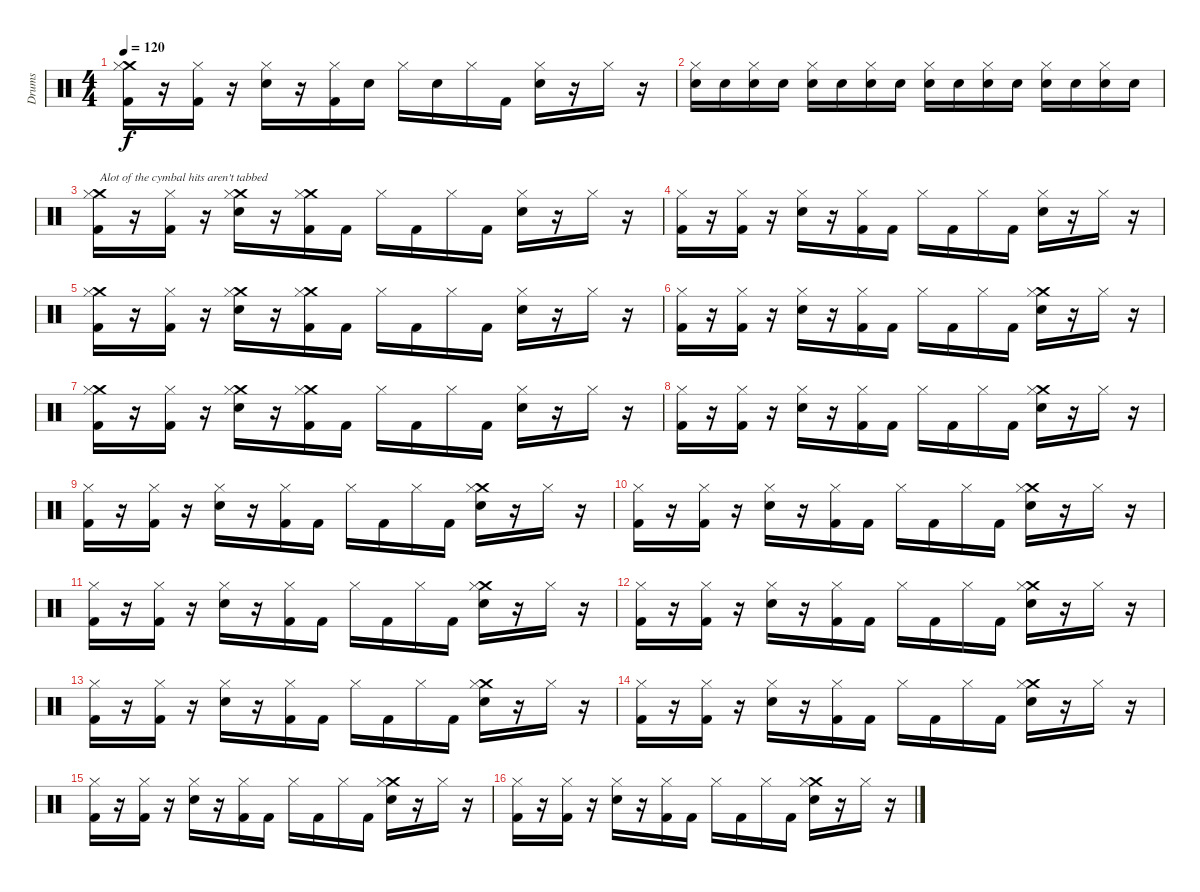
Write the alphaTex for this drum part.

\track ("Drums" "Drums") {instrument percussion}
\staff {score}
\articulation defaults
\ts (4 4)
\tempo 120
\clef neutral
\ks c
("Crash medium (hit)" "Hi-Hat (closed)" "Kick (hit) 2").16{dy f} r.16 ("Hi-Hat (closed)" "Kick (hit) 2").16 r.16 ("Hi-Hat (closed)" "Snare (hit) 2").16 r.16 ("Hi-Hat (closed)" "Kick (hit) 2").16 "Snare (hit) 2".16 "Hi-Hat (closed)".16 "Snare (hit) 2".16 "Hi-Hat (closed)".16 "Kick (hit) 2".16 ("Hi-Hat (closed)" "Snare (hit) 2").16 r.16 "Hi-Hat (closed)".16 r.16 |
("Hi-Hat (closed)" "Snare (hit) 2").16 "Snare (hit) 2".16 ("Hi-Hat (closed)" "Snare (hit) 2").16 "Snare (hit) 2".16 ("Hi-Hat (closed)" "Snare (hit) 2").16 "Snare (hit) 2".16 ("Hi-Hat (closed)" "Snare (hit) 2").16 "Snare (hit) 2".16 ("Hi-Hat (closed)" "Snare (hit) 2").16 "Snare (hit) 2".16 ("Hi-Hat (closed)" "Snare (hit) 2").16 "Snare (hit) 2".16 ("Hi-Hat (closed)" "Snare (hit) 2").16 "Snare (hit) 2".16 ("Hi-Hat (closed)" "Snare (hit) 2").16 "Snare (hit) 2".16 |
("Crash medium (hit)" "Hi-Hat (closed)" "Kick (hit) 2").16{txt "Alot of the cymbal hits aren't tabbed"} r.16 ("Hi-Hat (closed)" "Kick (hit) 2").16 r.16 ("Crash medium (hit)" "Hi-Hat (closed)" "Snare (hit) 2").16 r.16 ("Crash medium (hit)" "Hi-Hat (closed)" "Kick (hit) 2").16 "Kick (hit) 2".16 "Hi-Hat (closed)".16 "Kick (hit) 2".16 "Hi-Hat (closed)".16 "Kick (hit) 2".16 ("Hi-Hat (closed)" "Snare (hit) 2").16 r.16 "Hi-Hat (closed)".16 r.16 |
("Hi-Hat (closed)" "Kick (hit) 2").16 r.16 ("Hi-Hat (closed)" "Kick (hit) 2").16 r.16 ("Hi-Hat (closed)" "Snare (hit) 2").16 r.16 ("Hi-Hat (closed)" "Kick (hit) 2").16 "Kick (hit) 2".16 "Hi-Hat (closed)".16 "Kick (hit) 2".16 "Hi-Hat (closed)".16 "Kick (hit) 2".16 ("Hi-Hat (closed)" "Snare (hit) 2").16 r.16 "Hi-Hat (closed)".16 r.16 |
("Crash medium (hit)" "Hi-Hat (closed)" "Kick (hit) 2").16 r.16 ("Hi-Hat (closed)" "Kick (hit) 2").16 r.16 ("Crash medium (hit)" "Hi-Hat (closed)" "Snare (hit) 2").16 r.16 ("Crash medium (hit)" "Hi-Hat (closed)" "Kick (hit) 2").16 "Kick (hit) 2".16 "Hi-Hat (closed)".16 "Kick (hit) 2".16 "Hi-Hat (closed)".16 "Kick (hit) 2".16 ("Hi-Hat (closed)" "Snare (hit) 2").16 r.16 "Hi-Hat (closed)".16 r.16 |
("Hi-Hat (closed)" "Kick (hit) 2").16 r.16 ("Hi-Hat (closed)" "Kick (hit) 2").16 r.16 ("Hi-Hat (closed)" "Snare (hit) 2").16 r.16 ("Hi-Hat (closed)" "Kick (hit) 2").16 "Kick (hit) 2".16 "Hi-Hat (closed)".16 "Kick (hit) 2".16 "Hi-Hat (closed)".16 "Kick (hit) 2".16 ("Crash medium (hit)" "Hi-Hat (closed)" "Snare (hit) 2").16 r.16 "Hi-Hat (closed)".16 r.16 |
("Crash medium (hit)" "Hi-Hat (closed)" "Kick (hit) 2").16 r.16 ("Hi-Hat (closed)" "Kick (hit) 2").16 r.16 ("Crash medium (hit)" "Hi-Hat (closed)" "Snare (hit) 2").16 r.16 ("Crash medium (hit)" "Hi-Hat (closed)" "Kick (hit) 2").16 "Kick (hit) 2".16 "Hi-Hat (closed)".16 "Kick (hit) 2".16 "Hi-Hat (closed)".16 "Kick (hit) 2".16 ("Hi-Hat (closed)" "Snare (hit) 2").16 r.16 "Hi-Hat (closed)".16 r.16 |
("Hi-Hat (closed)" "Kick (hit) 2").16 r.16 ("Hi-Hat (closed)" "Kick (hit) 2").16 r.16 ("Hi-Hat (closed)" "Snare (hit) 2").16 r.16 ("Hi-Hat (closed)" "Kick (hit) 2").16 "Kick (hit) 2".16 "Hi-Hat (closed)".16 "Kick (hit) 2".16 "Hi-Hat (closed)".16 "Kick (hit) 2".16 ("Crash medium (hit)" "Hi-Hat (closed)" "Snare (hit) 2").16 r.16 "Hi-Hat (closed)".16 r.16 |
("Hi-Hat (closed)" "Kick (hit) 2").16 r.16 ("Hi-Hat (closed)" "Kick (hit) 2").16 r.16 ("Hi-Hat (closed)" "Snare (hit) 2").16 r.16 ("Hi-Hat (closed)" "Kick (hit) 2").16 "Kick (hit) 2".16 "Hi-Hat (closed)".16 "Kick (hit) 2".16 "Hi-Hat (closed)".16 "Kick (hit) 2".16 ("Crash medium (hit)" "Hi-Hat (closed)" "Snare (hit) 2").16 r.16 "Hi-Hat (closed)".16 r.16 |
("Hi-Hat (closed)" "Kick (hit) 2").16 r.16 ("Hi-Hat (closed)" "Kick (hit) 2").16 r.16 ("Hi-Hat (closed)" "Snare (hit) 2").16 r.16 ("Hi-Hat (closed)" "Kick (hit) 2").16 "Kick (hit) 2".16 "Hi-Hat (closed)".16 "Kick (hit) 2".16 "Hi-Hat (closed)".16 "Kick (hit) 2".16 ("Crash medium (hit)" "Hi-Hat (closed)" "Snare (hit) 2").16 r.16 "Hi-Hat (closed)".16 r.16 |
("Hi-Hat (closed)" "Kick (hit) 2").16 r.16 ("Hi-Hat (closed)" "Kick (hit) 2").16 r.16 ("Hi-Hat (closed)" "Snare (hit) 2").16 r.16 ("Hi-Hat (closed)" "Kick (hit) 2").16 "Kick (hit) 2".16 "Hi-Hat (closed)".16 "Kick (hit) 2".16 "Hi-Hat (closed)".16 "Kick (hit) 2".16 ("Crash medium (hit)" "Hi-Hat (closed)" "Snare (hit) 2").16 r.16 "Hi-Hat (closed)".16 r.16 |
("Hi-Hat (closed)" "Kick (hit) 2").16 r.16 ("Hi-Hat (closed)" "Kick (hit) 2").16 r.16 ("Hi-Hat (closed)" "Snare (hit) 2").16 r.16 ("Hi-Hat (closed)" "Kick (hit) 2").16 "Kick (hit) 2".16 "Hi-Hat (closed)".16 "Kick (hit) 2".16 "Hi-Hat (closed)".16 "Kick (hit) 2".16 ("Crash medium (hit)" "Hi-Hat (closed)" "Snare (hit) 2").16 r.16 "Hi-Hat (closed)".16 r.16 |
("Hi-Hat (closed)" "Kick (hit) 2").16 r.16 ("Hi-Hat (closed)" "Kick (hit) 2").16 r.16 ("Hi-Hat (closed)" "Snare (hit) 2").16 r.16 ("Hi-Hat (closed)" "Kick (hit) 2").16 "Kick (hit) 2".16 "Hi-Hat (closed)".16 "Kick (hit) 2".16 "Hi-Hat (closed)".16 "Kick (hit) 2".16 ("Crash medium (hit)" "Hi-Hat (closed)" "Snare (hit) 2").16 r.16 "Hi-Hat (closed)".16 r.16 |
("Hi-Hat (closed)" "Kick (hit) 2").16 r.16 ("Hi-Hat (closed)" "Kick (hit) 2").16 r.16 ("Hi-Hat (closed)" "Snare (hit) 2").16 r.16 ("Hi-Hat (closed)" "Kick (hit) 2").16 "Kick (hit) 2".16 "Hi-Hat (closed)".16 "Kick (hit) 2".16 "Hi-Hat (closed)".16 "Kick (hit) 2".16 ("Crash medium (hit)" "Hi-Hat (closed)" "Snare (hit) 2").16 r.16 "Hi-Hat (closed)".16 r.16 |
("Hi-Hat (closed)" "Kick (hit) 2").16 r.16 ("Hi-Hat (closed)" "Kick (hit) 2").16 r.16 ("Hi-Hat (closed)" "Snare (hit) 2").16 r.16 ("Hi-Hat (closed)" "Kick (hit) 2").16 "Kick (hit) 2".16 "Hi-Hat (closed)".16 "Kick (hit) 2".16 "Hi-Hat (closed)".16 "Kick (hit) 2".16 ("Crash medium (hit)" "Hi-Hat (closed)" "Snare (hit) 2").16 r.16 "Hi-Hat (closed)".16 r.16 |
("Hi-Hat (closed)" "Kick (hit) 2").16 r.16 ("Hi-Hat (closed)" "Kick (hit) 2").16 r.16 ("Hi-Hat (closed)" "Snare (hit) 2").16 r.16 ("Hi-Hat (closed)" "Kick (hit) 2").16 "Kick (hit) 2".16 "Hi-Hat (closed)".16 "Kick (hit) 2".16 "Hi-Hat (closed)".16 "Kick (hit) 2".16 ("Crash medium (hit)" "Hi-Hat (closed)" "Snare (hit) 2").16 r.16 "Hi-Hat (closed)".16 r.16
